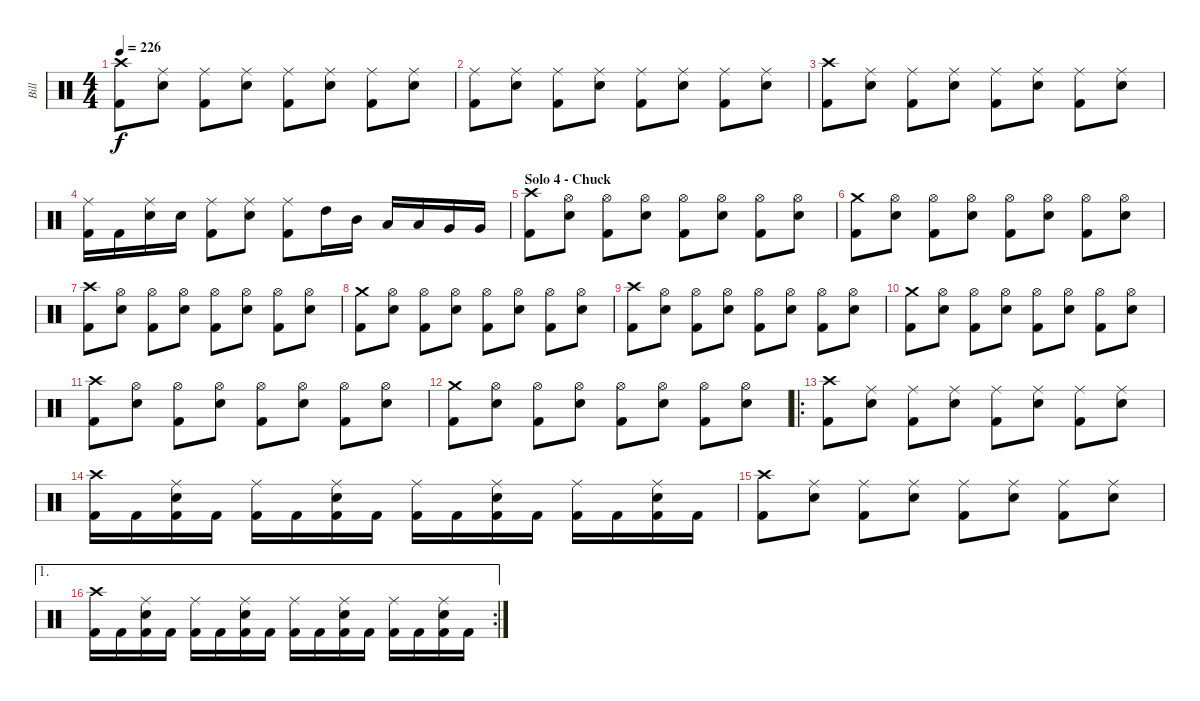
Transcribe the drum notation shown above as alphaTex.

\track ("Bill" "Bill") {instrument percussion}
\staff {score}
\articulation defaults
\ts (4 4)
\tempo 226
\clef neutral
\ks c
("Crash high (hit)" "Kick (hit) 2").8{dy f} ("Ride (middle)" "Electric Snare (hit)").8 ("Ride (middle)" "Kick (hit) 2").8 ("Ride (middle)" "Electric Snare (hit)").8 ("Ride (middle)" "Kick (hit) 2").8 ("Ride (middle)" "Electric Snare (hit)").8 ("Ride (middle)" "Kick (hit) 2").8 ("Ride (middle)" "Electric Snare (hit)").8 |
("Ride (middle)" "Kick (hit) 2").8 ("Ride (middle)" "Electric Snare (hit)").8 ("Ride (middle)" "Kick (hit) 2").8 ("Ride (middle)" "Electric Snare (hit)").8 ("Ride (middle)" "Kick (hit) 2").8 ("Ride (middle)" "Electric Snare (hit)").8 ("Ride (middle)" "Kick (hit) 2").8 ("Ride (middle)" "Electric Snare (hit)").8 |
("Crash high (hit)" "Kick (hit) 2").8 ("Ride (middle)" "Electric Snare (hit)").8 ("Ride (middle)" "Kick (hit) 2").8 ("Ride (middle)" "Electric Snare (hit)").8 ("Ride (middle)" "Kick (hit) 2").8 ("Ride (middle)" "Electric Snare (hit)").8 ("Ride (middle)" "Kick (hit) 2").8 ("Ride (middle)" "Electric Snare (hit)").8 |
("Ride (middle)" "Kick (hit) 2").16 "Kick (hit) 2".16 ("Ride (middle)" "Electric Snare (hit)").16 "Electric Snare (hit)".16 ("Ride (middle)" "Kick (hit) 2").8 ("Ride (middle)" "Electric Snare (hit)").8 ("Ride (middle)" "Kick (hit) 2").8 "High Tom (hit)".16 "Mid Tom (hit)".16 "Low Tom (hit)".16 "Low Tom (hit)".16 "Very Low Tom (hit)".16 "Very Low Tom (hit)".16 |
\section ("" "Solo 4 - Chuck")
("Crash high (hit)" "Kick (hit) 2").8 ("Hi-Hat (open)" "Electric Snare (hit)").8 ("Hi-Hat (open)" "Kick (hit) 2").8 ("Hi-Hat (open)" "Electric Snare (hit)").8 ("Hi-Hat (open)" "Kick (hit) 2").8 ("Hi-Hat (open)" "Electric Snare (hit)").8 ("Hi-Hat (open)" "Kick (hit) 2").8 ("Hi-Hat (open)" "Electric Snare (hit)").8 |
("Crash medium (hit)" "Kick (hit) 2").8 ("Hi-Hat (open)" "Electric Snare (hit)").8 ("Hi-Hat (open)" "Kick (hit) 2").8 ("Hi-Hat (open)" "Electric Snare (hit)").8 ("Hi-Hat (open)" "Kick (hit) 2").8 ("Hi-Hat (open)" "Electric Snare (hit)").8 ("Hi-Hat (open)" "Kick (hit) 2").8 ("Hi-Hat (open)" "Electric Snare (hit)").8 |
("Crash high (hit)" "Kick (hit) 2").8 ("Hi-Hat (open)" "Electric Snare (hit)").8 ("Hi-Hat (open)" "Kick (hit) 2").8 ("Hi-Hat (open)" "Electric Snare (hit)").8 ("Hi-Hat (open)" "Kick (hit) 2").8 ("Hi-Hat (open)" "Electric Snare (hit)").8 ("Hi-Hat (open)" "Kick (hit) 2").8 ("Hi-Hat (open)" "Electric Snare (hit)").8 |
("Crash medium (hit)" "Kick (hit) 2").8 ("Hi-Hat (open)" "Electric Snare (hit)").8 ("Hi-Hat (open)" "Kick (hit) 2").8 ("Hi-Hat (open)" "Electric Snare (hit)").8 ("Hi-Hat (open)" "Kick (hit) 2").8 ("Hi-Hat (open)" "Electric Snare (hit)").8 ("Hi-Hat (open)" "Kick (hit) 2").8 ("Hi-Hat (open)" "Electric Snare (hit)").8 |
("Crash high (hit)" "Kick (hit) 2").8 ("Hi-Hat (open)" "Electric Snare (hit)").8 ("Hi-Hat (open)" "Kick (hit) 2").8 ("Hi-Hat (open)" "Electric Snare (hit)").8 ("Hi-Hat (open)" "Kick (hit) 2").8 ("Hi-Hat (open)" "Electric Snare (hit)").8 ("Hi-Hat (open)" "Kick (hit) 2").8 ("Hi-Hat (open)" "Electric Snare (hit)").8 |
("Crash medium (hit)" "Kick (hit) 2").8 ("Hi-Hat (open)" "Electric Snare (hit)").8 ("Hi-Hat (open)" "Kick (hit) 2").8 ("Hi-Hat (open)" "Electric Snare (hit)").8 ("Hi-Hat (open)" "Kick (hit) 2").8 ("Hi-Hat (open)" "Electric Snare (hit)").8 ("Hi-Hat (open)" "Kick (hit) 2").8 ("Hi-Hat (open)" "Electric Snare (hit)").8 |
("Crash high (hit)" "Kick (hit) 2").8 ("Hi-Hat (open)" "Electric Snare (hit)").8 ("Hi-Hat (open)" "Kick (hit) 2").8 ("Hi-Hat (open)" "Electric Snare (hit)").8 ("Hi-Hat (open)" "Kick (hit) 2").8 ("Hi-Hat (open)" "Electric Snare (hit)").8 ("Hi-Hat (open)" "Kick (hit) 2").8 ("Hi-Hat (open)" "Electric Snare (hit)").8 |
("Crash medium (hit)" "Kick (hit) 2").8 ("Hi-Hat (open)" "Electric Snare (hit)").8 ("Hi-Hat (open)" "Kick (hit) 2").8 ("Hi-Hat (open)" "Electric Snare (hit)").8 ("Hi-Hat (open)" "Kick (hit) 2").8 ("Hi-Hat (open)" "Electric Snare (hit)").8 ("Hi-Hat (open)" "Kick (hit) 2").8 ("Hi-Hat (open)" "Electric Snare (hit)").8 |
\ro
("Crash high (hit)" "Kick (hit) 2").8 ("Ride (middle)" "Electric Snare (hit)").8 ("Ride (middle)" "Kick (hit) 2").8 ("Ride (middle)" "Electric Snare (hit)").8 ("Ride (middle)" "Kick (hit) 2").8 ("Ride (middle)" "Electric Snare (hit)").8 ("Ride (middle)" "Kick (hit) 2").8 ("Ride (middle)" "Electric Snare (hit)").8 |
("Crash high (hit)" "Kick (hit) 2").16 "Kick (hit) 2".16 ("Ride (middle)" "Electric Snare (hit)" "Kick (hit) 2").16 "Kick (hit) 2".16 ("Ride (middle)" "Kick (hit) 2").16 "Kick (hit) 2".16 ("Ride (middle)" "Electric Snare (hit)" "Kick (hit) 2").16 "Kick (hit) 2".16 ("Ride (middle)" "Kick (hit) 2").16 "Kick (hit) 2".16 ("Ride (middle)" "Electric Snare (hit)" "Kick (hit) 2").16 "Kick (hit) 2".16 ("Ride (middle)" "Kick (hit) 2").16 "Kick (hit) 2".16 ("Ride (middle)" "Electric Snare (hit)" "Kick (hit) 2").16 "Kick (hit) 2".16 |
("Crash high (hit)" "Kick (hit) 2").8 ("Ride (middle)" "Electric Snare (hit)").8 ("Ride (middle)" "Kick (hit) 2").8 ("Ride (middle)" "Electric Snare (hit)").8 ("Ride (middle)" "Kick (hit) 2").8 ("Ride (middle)" "Electric Snare (hit)").8 ("Ride (middle)" "Kick (hit) 2").8 ("Ride (middle)" "Electric Snare (hit)").8 |
\ae 1
\rc 2
("Crash high (hit)" "Kick (hit) 2").16 "Kick (hit) 2".16 ("Ride (middle)" "Electric Snare (hit)" "Kick (hit) 2").16 "Kick (hit) 2".16 ("Ride (middle)" "Kick (hit) 2").16 "Kick (hit) 2".16 ("Ride (middle)" "Electric Snare (hit)" "Kick (hit) 2").16 "Kick (hit) 2".16 ("Ride (middle)" "Kick (hit) 2").16 "Kick (hit) 2".16 ("Ride (middle)" "Electric Snare (hit)" "Kick (hit) 2").16 "Kick (hit) 2".16 ("Ride (middle)" "Kick (hit) 2").16 "Kick (hit) 2".16 ("Ride (middle)" "Electric Snare (hit)" "Kick (hit) 2").16 "Kick (hit) 2".16
